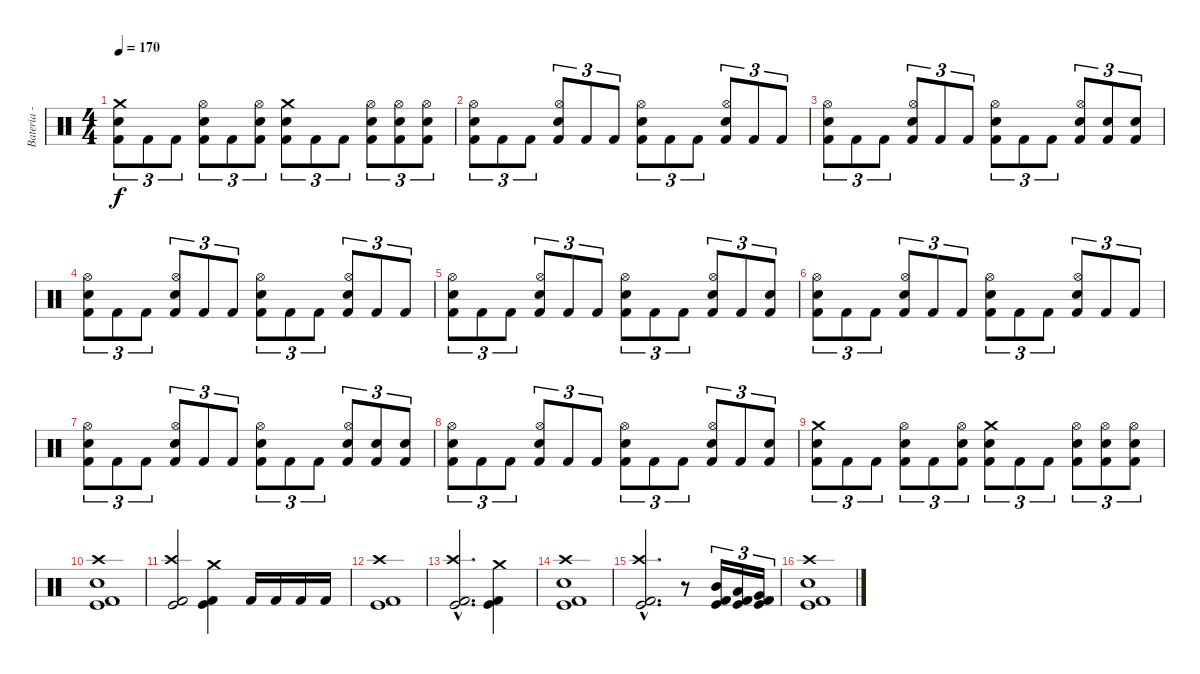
\track ("Bateria - Drums" "Bateria - ") {instrument percussion}
\staff {score}
\articulation defaults
\ts (4 4)
\tempo 170
\clef neutral
\ks c
("Crash medium (hit)" "Snare (hit) 2" "Kick (hit) 2").8{tu (3 2) dy f} "Kick (hit) 2".8{tu (3 2)} "Kick (hit) 2".8{tu (3 2)} ("Hi-Hat (open)" "Snare (hit) 2" "Kick (hit) 2").8{tu (3 2)} "Kick (hit) 2".8{tu (3 2)} ("Hi-Hat (open)" "Snare (hit) 2" "Kick (hit) 2").8{tu (3 2)} ("Crash medium (hit)" "Snare (hit) 2" "Kick (hit) 2").8{tu (3 2)} "Kick (hit) 2".8{tu (3 2)} "Kick (hit) 2".8{tu (3 2)} ("Hi-Hat (open)" "Snare (hit) 2" "Kick (hit) 2").8{tu (3 2)} ("Hi-Hat (open)" "Snare (hit) 2" "Kick (hit) 2").8{tu (3 2)} ("Hi-Hat (open)" "Snare (hit) 2" "Kick (hit) 2").8{tu (3 2)} |
("Hi-Hat (open)" "Snare (hit) 2" "Kick (hit) 2").8{tu (3 2)} "Kick (hit) 2".8{tu (3 2)} "Kick (hit) 2".8{tu (3 2)} ("Hi-Hat (open)" "Electric Snare (hit)" "Kick (hit) 2").8{tu (3 2)} "Kick (hit) 2".8{tu (3 2)} "Kick (hit) 2".8{tu (3 2)} ("Hi-Hat (open)" "Snare (hit) 2" "Kick (hit) 2").8{tu (3 2)} "Kick (hit) 2".8{tu (3 2)} "Kick (hit) 2".8{tu (3 2)} ("Hi-Hat (open)" "Electric Snare (hit)" "Kick (hit) 2").8{tu (3 2)} "Kick (hit) 2".8{tu (3 2)} "Kick (hit) 2".8{tu (3 2)} |
("Hi-Hat (open)" "Snare (hit) 2" "Kick (hit) 2").8{tu (3 2)} "Kick (hit) 2".8{tu (3 2)} "Kick (hit) 2".8{tu (3 2)} ("Hi-Hat (open)" "Electric Snare (hit)" "Kick (hit) 2").8{tu (3 2)} "Kick (hit) 2".8{tu (3 2)} "Kick (hit) 2".8{tu (3 2)} ("Hi-Hat (open)" "Snare (hit) 2" "Kick (hit) 2").8{tu (3 2)} "Kick (hit) 2".8{tu (3 2)} "Kick (hit) 2".8{tu (3 2)} ("Hi-Hat (open)" "Electric Snare (hit)" "Kick (hit) 2").8{tu (3 2)} ("Electric Snare (hit)" "Kick (hit) 2").8{tu (3 2)} ("Electric Snare (hit)" "Kick (hit) 2").8{tu (3 2)} |
("Hi-Hat (open)" "Snare (hit) 2" "Kick (hit) 2").8{tu (3 2)} "Kick (hit) 2".8{tu (3 2)} "Kick (hit) 2".8{tu (3 2)} ("Hi-Hat (open)" "Electric Snare (hit)" "Kick (hit) 2").8{tu (3 2)} "Kick (hit) 2".8{tu (3 2)} "Kick (hit) 2".8{tu (3 2)} ("Hi-Hat (open)" "Snare (hit) 2" "Kick (hit) 2").8{tu (3 2)} "Kick (hit) 2".8{tu (3 2)} "Kick (hit) 2".8{tu (3 2)} ("Hi-Hat (open)" "Electric Snare (hit)" "Kick (hit) 2").8{tu (3 2)} "Kick (hit) 2".8{tu (3 2)} "Kick (hit) 2".8{tu (3 2)} |
("Hi-Hat (open)" "Snare (hit) 2" "Kick (hit) 2").8{tu (3 2)} "Kick (hit) 2".8{tu (3 2)} "Kick (hit) 2".8{tu (3 2)} ("Hi-Hat (open)" "Electric Snare (hit)" "Kick (hit) 2").8{tu (3 2)} "Kick (hit) 2".8{tu (3 2)} "Kick (hit) 2".8{tu (3 2)} ("Hi-Hat (open)" "Snare (hit) 2" "Kick (hit) 2").8{tu (3 2)} "Kick (hit) 2".8{tu (3 2)} "Kick (hit) 2".8{tu (3 2)} ("Hi-Hat (open)" "Electric Snare (hit)" "Kick (hit) 2").8{tu (3 2)} "Kick (hit) 2".8{tu (3 2)} ("Electric Snare (hit)" "Kick (hit) 2").8{tu (3 2)} |
("Hi-Hat (open)" "Snare (hit) 2" "Kick (hit) 2").8{tu (3 2)} "Kick (hit) 2".8{tu (3 2)} "Kick (hit) 2".8{tu (3 2)} ("Hi-Hat (open)" "Electric Snare (hit)" "Kick (hit) 2").8{tu (3 2)} "Kick (hit) 2".8{tu (3 2)} "Kick (hit) 2".8{tu (3 2)} ("Hi-Hat (open)" "Snare (hit) 2" "Kick (hit) 2").8{tu (3 2)} "Kick (hit) 2".8{tu (3 2)} "Kick (hit) 2".8{tu (3 2)} ("Hi-Hat (open)" "Electric Snare (hit)" "Kick (hit) 2").8{tu (3 2)} "Kick (hit) 2".8{tu (3 2)} "Kick (hit) 2".8{tu (3 2)} |
("Hi-Hat (open)" "Snare (hit) 2" "Kick (hit) 2").8{tu (3 2)} "Kick (hit) 2".8{tu (3 2)} "Kick (hit) 2".8{tu (3 2)} ("Hi-Hat (open)" "Electric Snare (hit)" "Kick (hit) 2").8{tu (3 2)} "Kick (hit) 2".8{tu (3 2)} "Kick (hit) 2".8{tu (3 2)} ("Hi-Hat (open)" "Snare (hit) 2" "Kick (hit) 2").8{tu (3 2)} "Kick (hit) 2".8{tu (3 2)} "Kick (hit) 2".8{tu (3 2)} ("Hi-Hat (open)" "Electric Snare (hit)" "Kick (hit) 2").8{tu (3 2)} ("Electric Snare (hit)" "Kick (hit) 2").8{tu (3 2)} ("Electric Snare (hit)" "Kick (hit) 2").8{tu (3 2)} |
("Hi-Hat (open)" "Snare (hit) 2" "Kick (hit) 2").8{tu (3 2)} "Kick (hit) 2".8{tu (3 2)} "Kick (hit) 2".8{tu (3 2)} ("Hi-Hat (open)" "Electric Snare (hit)" "Kick (hit) 2").8{tu (3 2)} "Kick (hit) 2".8{tu (3 2)} "Kick (hit) 2".8{tu (3 2)} ("Hi-Hat (open)" "Snare (hit) 2" "Kick (hit) 2").8{tu (3 2)} "Kick (hit) 2".8{tu (3 2)} "Kick (hit) 2".8{tu (3 2)} ("Hi-Hat (open)" "Electric Snare (hit)" "Kick (hit) 2").8{tu (3 2)} "Kick (hit) 2".8{tu (3 2)} ("Electric Snare (hit)" "Kick (hit) 2").8{tu (3 2)} |
("Crash medium (hit)" "Snare (hit) 2" "Kick (hit) 2").8{tu (3 2)} "Kick (hit) 2".8{tu (3 2)} "Kick (hit) 2".8{tu (3 2)} ("Hi-Hat (open)" "Snare (hit) 2" "Kick (hit) 2").8{tu (3 2)} "Kick (hit) 2".8{tu (3 2)} ("Hi-Hat (open)" "Snare (hit) 2" "Kick (hit) 2").8{tu (3 2)} ("Crash medium (hit)" "Snare (hit) 2" "Kick (hit) 2").8{tu (3 2)} "Kick (hit) 2".8{tu (3 2)} "Kick (hit) 2".8{tu (3 2)} ("Hi-Hat (open)" "Snare (hit) 2" "Kick (hit) 2").8{tu (3 2)} ("Hi-Hat (open)" "Snare (hit) 2" "Kick (hit) 2").8{tu (3 2)} ("Hi-Hat (open)" "Snare (hit) 2" "Kick (hit) 2").8{tu (3 2)} |
("Crash high (hit)" "Snare (hit) 2" "Kick (hit)" "Kick (hit) 2").1 |
("Crash high (hit)" "Kick (hit)" "Kick (hit) 2").2 ("Crash medium (hit)" "Kick (hit)" "Kick (hit) 2").4 "Kick (hit) 2".16 "Kick (hit) 2".16 "Kick (hit) 2".16 "Kick (hit) 2".16 |
("Crash high (hit)" "Kick (hit)" "Kick (hit) 2").1 |
("Crash high (hit)"{hac} "Kick (hit)"{hac} "Kick (hit) 2"{hac}).2{d} ("Crash medium (hit)" "Kick (hit)" "Kick (hit) 2").4 |
("Crash high (hit)" "Snare (hit) 2" "Kick (hit)" "Kick (hit) 2").1 |
("Crash high (hit)"{hac} "Kick (hit)"{hac} "Kick (hit) 2"{hac}).2{d} r.8 ("Mid Tom (hit)" "Kick (hit)" "Kick (hit) 2").16{tu (3 2)} ("Low Tom (hit)" "Kick (hit)" "Kick (hit) 2").16{tu (3 2)} ("Very Low Tom (hit)" "Kick (hit)" "Kick (hit) 2").16{tu (3 2)} |
("Crash high (hit)" "Snare (hit) 2" "Kick (hit)" "Kick (hit) 2").1
